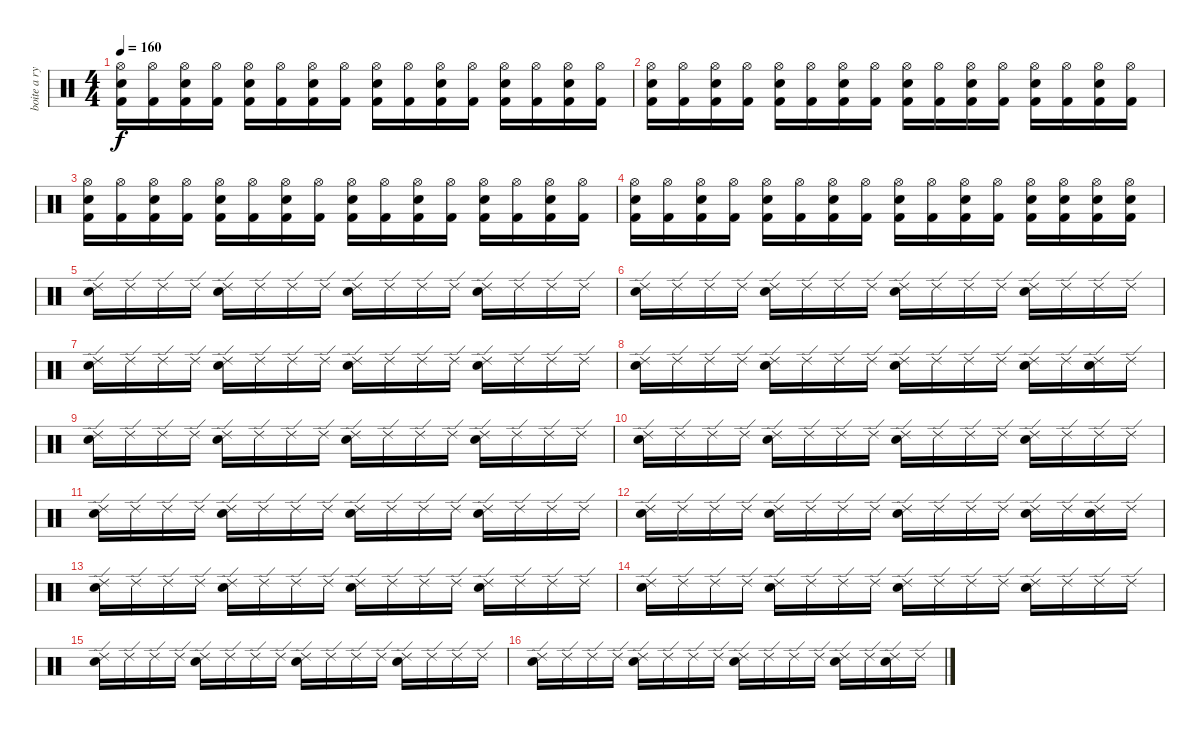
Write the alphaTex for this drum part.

\track ("boite a rythme" "boite a ry") {instrument percussion}
\staff {score}
\articulation defaults
\ts (4 4)
\tempo 160
\clef neutral
\ks c
("Hi-Hat (open)" "Snare (hit) 2" "Kick (hit) 2").16{dy f} ("Hi-Hat (open)" "Kick (hit) 2").16 ("Hi-Hat (open)" "Snare (hit) 2" "Kick (hit) 2").16 ("Hi-Hat (open)" "Kick (hit) 2").16 ("Hi-Hat (open)" "Snare (hit) 2" "Kick (hit) 2").16 ("Hi-Hat (open)" "Kick (hit) 2").16 ("Hi-Hat (open)" "Snare (hit) 2" "Kick (hit) 2").16 ("Hi-Hat (open)" "Kick (hit) 2").16 ("Hi-Hat (open)" "Snare (hit) 2" "Kick (hit) 2").16 ("Hi-Hat (open)" "Kick (hit) 2").16 ("Hi-Hat (open)" "Snare (hit) 2" "Kick (hit) 2").16 ("Hi-Hat (open)" "Kick (hit) 2").16 ("Hi-Hat (open)" "Snare (hit) 2" "Kick (hit) 2").16 ("Hi-Hat (open)" "Kick (hit) 2").16 ("Hi-Hat (open)" "Snare (hit) 2" "Kick (hit) 2").16 ("Hi-Hat (open)" "Kick (hit) 2").16 |
("Hi-Hat (open)" "Snare (hit) 2" "Kick (hit) 2").16 ("Hi-Hat (open)" "Kick (hit) 2").16 ("Hi-Hat (open)" "Snare (hit) 2" "Kick (hit) 2").16 ("Hi-Hat (open)" "Kick (hit) 2").16 ("Hi-Hat (open)" "Snare (hit) 2" "Kick (hit) 2").16 ("Hi-Hat (open)" "Kick (hit) 2").16 ("Hi-Hat (open)" "Snare (hit) 2" "Kick (hit) 2").16 ("Hi-Hat (open)" "Kick (hit) 2").16 ("Hi-Hat (open)" "Snare (hit) 2" "Kick (hit) 2").16 ("Hi-Hat (open)" "Kick (hit) 2").16 ("Hi-Hat (open)" "Snare (hit) 2" "Kick (hit) 2").16 ("Hi-Hat (open)" "Kick (hit) 2").16 ("Hi-Hat (open)" "Snare (hit) 2" "Kick (hit) 2").16 ("Hi-Hat (open)" "Kick (hit) 2").16 ("Hi-Hat (open)" "Snare (hit) 2" "Kick (hit) 2").16 ("Hi-Hat (open)" "Kick (hit) 2").16 |
("Hi-Hat (open)" "Snare (hit) 2" "Kick (hit) 2").16 ("Hi-Hat (open)" "Kick (hit) 2").16 ("Hi-Hat (open)" "Snare (hit) 2" "Kick (hit) 2").16 ("Hi-Hat (open)" "Kick (hit) 2").16 ("Hi-Hat (open)" "Snare (hit) 2" "Kick (hit) 2").16 ("Hi-Hat (open)" "Kick (hit) 2").16 ("Hi-Hat (open)" "Snare (hit) 2" "Kick (hit) 2").16 ("Hi-Hat (open)" "Kick (hit) 2").16 ("Hi-Hat (open)" "Snare (hit) 2" "Kick (hit) 2").16 ("Hi-Hat (open)" "Kick (hit) 2").16 ("Hi-Hat (open)" "Snare (hit) 2" "Kick (hit) 2").16 ("Hi-Hat (open)" "Kick (hit) 2").16 ("Hi-Hat (open)" "Snare (hit) 2" "Kick (hit) 2").16 ("Hi-Hat (open)" "Kick (hit) 2").16 ("Hi-Hat (open)" "Snare (hit) 2" "Kick (hit) 2").16 ("Hi-Hat (open)" "Kick (hit) 2").16 |
("Hi-Hat (open)" "Snare (hit) 2" "Kick (hit) 2").16 ("Hi-Hat (open)" "Kick (hit) 2").16 ("Hi-Hat (open)" "Snare (hit) 2" "Kick (hit) 2").16 ("Hi-Hat (open)" "Kick (hit) 2").16 ("Hi-Hat (open)" "Snare (hit) 2" "Kick (hit) 2").16 ("Hi-Hat (open)" "Kick (hit) 2").16 ("Hi-Hat (open)" "Snare (hit) 2" "Kick (hit) 2").16 ("Hi-Hat (open)" "Kick (hit) 2").16 ("Hi-Hat (open)" "Snare (hit) 2" "Kick (hit) 2").16 ("Hi-Hat (open)" "Kick (hit) 2").16 ("Hi-Hat (open)" "Snare (hit) 2" "Kick (hit) 2").16 ("Hi-Hat (open)" "Kick (hit) 2").16 ("Hi-Hat (open)" "Snare (hit) 2" "Kick (hit) 2").16 ("Hi-Hat (open)" "Snare (hit) 2" "Kick (hit) 2").16 ("Hi-Hat (open)" "Snare (hit) 2" "Kick (hit) 2").16 ("Hi-Hat (open)" "Snare (hit) 2" "Kick (hit) 2").16 |
("Ride (edge) 2" "Electric Snare (hit)").16 "Ride (edge) 2".16 "Ride (edge) 2".16 "Ride (edge) 2".16 ("Ride (edge) 2" "Electric Snare (hit)").16 "Ride (edge) 2".16 "Ride (edge) 2".16 "Ride (edge) 2".16 ("Ride (edge) 2" "Electric Snare (hit)").16 "Ride (edge) 2".16 "Ride (edge) 2".16 "Ride (edge) 2".16 ("Ride (edge) 2" "Electric Snare (hit)").16 "Ride (edge) 2".16 "Ride (edge) 2".16 "Ride (edge) 2".16 |
("Ride (edge) 2" "Electric Snare (hit)").16 "Ride (edge) 2".16 "Ride (edge) 2".16 "Ride (edge) 2".16 ("Ride (edge) 2" "Electric Snare (hit)").16 "Ride (edge) 2".16 "Ride (edge) 2".16 "Ride (edge) 2".16 ("Ride (edge) 2" "Electric Snare (hit)").16 "Ride (edge) 2".16 "Ride (edge) 2".16 "Ride (edge) 2".16 ("Ride (edge) 2" "Electric Snare (hit)").16 "Ride (edge) 2".16 "Ride (edge) 2".16 "Ride (edge) 2".16 |
("Ride (edge) 2" "Electric Snare (hit)").16 "Ride (edge) 2".16 "Ride (edge) 2".16 "Ride (edge) 2".16 ("Ride (edge) 2" "Electric Snare (hit)").16 "Ride (edge) 2".16 "Ride (edge) 2".16 "Ride (edge) 2".16 ("Ride (edge) 2" "Electric Snare (hit)").16 "Ride (edge) 2".16 "Ride (edge) 2".16 "Ride (edge) 2".16 ("Ride (edge) 2" "Electric Snare (hit)").16 "Ride (edge) 2".16 "Ride (edge) 2".16 "Ride (edge) 2".16 |
("Ride (edge) 2" "Electric Snare (hit)").16 "Ride (edge) 2".16 "Ride (edge) 2".16 "Ride (edge) 2".16 ("Ride (edge) 2" "Electric Snare (hit)").16 "Ride (edge) 2".16 "Ride (edge) 2".16 "Ride (edge) 2".16 ("Ride (edge) 2" "Electric Snare (hit)").16 "Ride (edge) 2".16 "Ride (edge) 2".16 "Ride (edge) 2".16 ("Ride (edge) 2" "Electric Snare (hit)").16 "Ride (edge) 2".16 ("Ride (edge) 2" "Electric Snare (hit)").16 "Ride (edge) 2".16 |
("Ride (edge) 2" "Electric Snare (hit)").16 "Ride (edge) 2".16 "Ride (edge) 2".16 "Ride (edge) 2".16 ("Ride (edge) 2" "Electric Snare (hit)").16 "Ride (edge) 2".16 "Ride (edge) 2".16 "Ride (edge) 2".16 ("Ride (edge) 2" "Electric Snare (hit)").16 "Ride (edge) 2".16 "Ride (edge) 2".16 "Ride (edge) 2".16 ("Ride (edge) 2" "Electric Snare (hit)").16 "Ride (edge) 2".16 "Ride (edge) 2".16 "Ride (edge) 2".16 |
("Ride (edge) 2" "Electric Snare (hit)").16 "Ride (edge) 2".16 "Ride (edge) 2".16 "Ride (edge) 2".16 ("Ride (edge) 2" "Electric Snare (hit)").16 "Ride (edge) 2".16 "Ride (edge) 2".16 "Ride (edge) 2".16 ("Ride (edge) 2" "Electric Snare (hit)").16 "Ride (edge) 2".16 "Ride (edge) 2".16 "Ride (edge) 2".16 ("Ride (edge) 2" "Electric Snare (hit)").16 "Ride (edge) 2".16 "Ride (edge) 2".16 "Ride (edge) 2".16 |
("Ride (edge) 2" "Electric Snare (hit)").16 "Ride (edge) 2".16 "Ride (edge) 2".16 "Ride (edge) 2".16 ("Ride (edge) 2" "Electric Snare (hit)").16 "Ride (edge) 2".16 "Ride (edge) 2".16 "Ride (edge) 2".16 ("Ride (edge) 2" "Electric Snare (hit)").16 "Ride (edge) 2".16 "Ride (edge) 2".16 "Ride (edge) 2".16 ("Ride (edge) 2" "Electric Snare (hit)").16 "Ride (edge) 2".16 "Ride (edge) 2".16 "Ride (edge) 2".16 |
("Ride (edge) 2" "Electric Snare (hit)").16 "Ride (edge) 2".16 "Ride (edge) 2".16 "Ride (edge) 2".16 ("Ride (edge) 2" "Electric Snare (hit)").16 "Ride (edge) 2".16 "Ride (edge) 2".16 "Ride (edge) 2".16 ("Ride (edge) 2" "Electric Snare (hit)").16 "Ride (edge) 2".16 "Ride (edge) 2".16 "Ride (edge) 2".16 ("Ride (edge) 2" "Electric Snare (hit)").16 "Ride (edge) 2".16 ("Ride (edge) 2" "Electric Snare (hit)").16 "Ride (edge) 2".16 |
("Ride (edge) 2" "Electric Snare (hit)").16 "Ride (edge) 2".16 "Ride (edge) 2".16 "Ride (edge) 2".16 ("Ride (edge) 2" "Electric Snare (hit)").16 "Ride (edge) 2".16 "Ride (edge) 2".16 "Ride (edge) 2".16 ("Ride (edge) 2" "Electric Snare (hit)").16 "Ride (edge) 2".16 "Ride (edge) 2".16 "Ride (edge) 2".16 ("Ride (edge) 2" "Electric Snare (hit)").16 "Ride (edge) 2".16 "Ride (edge) 2".16 "Ride (edge) 2".16 |
("Ride (edge) 2" "Electric Snare (hit)").16 "Ride (edge) 2".16 "Ride (edge) 2".16 "Ride (edge) 2".16 ("Ride (edge) 2" "Electric Snare (hit)").16 "Ride (edge) 2".16 "Ride (edge) 2".16 "Ride (edge) 2".16 ("Ride (edge) 2" "Electric Snare (hit)").16 "Ride (edge) 2".16 "Ride (edge) 2".16 "Ride (edge) 2".16 ("Ride (edge) 2" "Electric Snare (hit)").16 "Ride (edge) 2".16 "Ride (edge) 2".16 "Ride (edge) 2".16 |
("Ride (edge) 2" "Electric Snare (hit)").16 "Ride (edge) 2".16 "Ride (edge) 2".16 "Ride (edge) 2".16 ("Ride (edge) 2" "Electric Snare (hit)").16 "Ride (edge) 2".16 "Ride (edge) 2".16 "Ride (edge) 2".16 ("Ride (edge) 2" "Electric Snare (hit)").16 "Ride (edge) 2".16 "Ride (edge) 2".16 "Ride (edge) 2".16 ("Ride (edge) 2" "Electric Snare (hit)").16 "Ride (edge) 2".16 "Ride (edge) 2".16 "Ride (edge) 2".16 |
("Ride (edge) 2" "Electric Snare (hit)").16 "Ride (edge) 2".16 "Ride (edge) 2".16 "Ride (edge) 2".16 ("Ride (edge) 2" "Electric Snare (hit)").16 "Ride (edge) 2".16 "Ride (edge) 2".16 "Ride (edge) 2".16 ("Ride (edge) 2" "Electric Snare (hit)").16 "Ride (edge) 2".16 "Ride (edge) 2".16 "Ride (edge) 2".16 ("Ride (edge) 2" "Electric Snare (hit)").16 "Ride (edge) 2".16 ("Ride (edge) 2" "Electric Snare (hit)").16 "Ride (edge) 2".16
